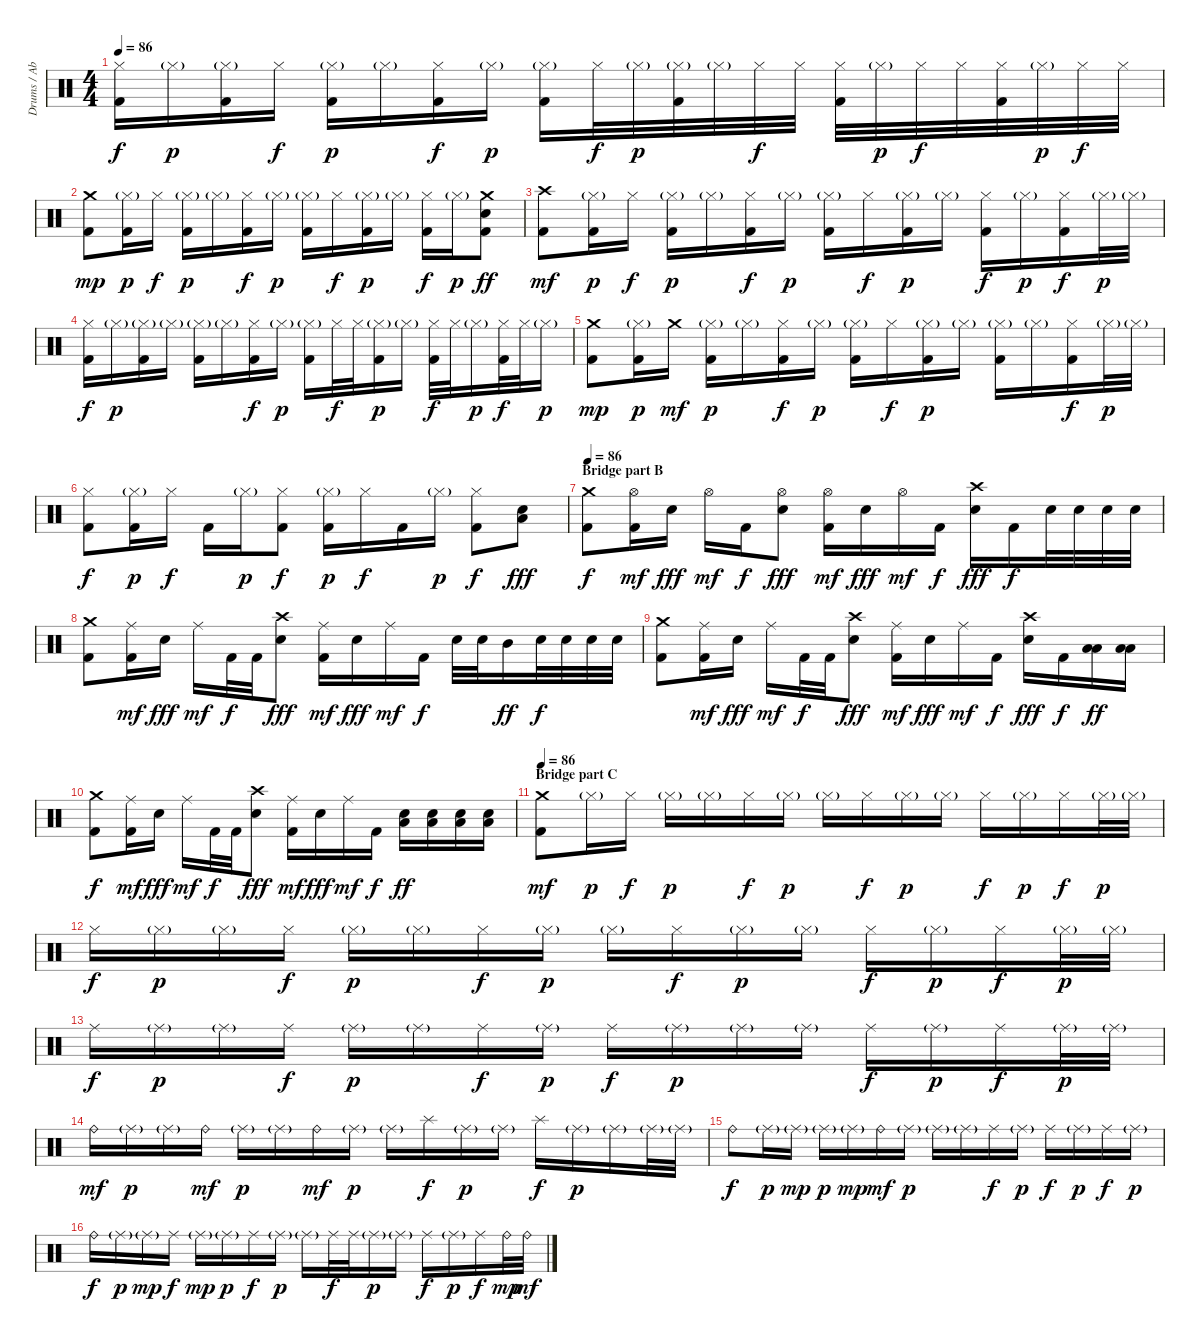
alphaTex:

\track ("Drums / Abe Cunningham" "Drums / Ab") {instrument percussion}
\staff {score}
\articulation defaults
\ts (4 4)
\tempo 86
\clef neutral
\ks c
("Hi-Hat (closed)" "Kick (hit) 2").16{dy f} "Hi-Hat (closed)"{g}.16{dy p} ("Hi-Hat (closed)"{g} "Kick (hit) 2").16 "Hi-Hat (closed)".16{dy f} ("Hi-Hat (closed)"{g} "Kick (hit) 2").16{dy p} "Hi-Hat (closed)"{g}.16 ("Hi-Hat (closed)" "Kick (hit) 2").16{dy f} "Hi-Hat (closed)"{g}.16{dy p} ("Hi-Hat (closed)"{g} "Kick (hit) 2").16 "Hi-Hat (closed)".32{dy f} "Hi-Hat (closed)"{g}.32{dy p} ("Hi-Hat (closed)"{g} "Kick (hit) 2").32 "Hi-Hat (closed)"{g}.32 "Hi-Hat (closed)".32{dy f} "Hi-Hat (closed)".32 ("Hi-Hat (closed)" "Kick (hit) 2").32 "Hi-Hat (closed)"{g}.32{dy p} "Hi-Hat (closed)".32{dy f} "Hi-Hat (closed)".32 ("Hi-Hat (closed)" "Kick (hit) 2").32 "Hi-Hat (closed)"{g}.32{dy p} "Hi-Hat (closed)".32{dy f} "Hi-Hat (closed)".32 |
("Crash medium (hit)" "Kick (hit) 2").8{dy mp} ("Hi-Hat (closed)"{g} "Kick (hit) 2").16{dy p} "Hi-Hat (closed)".16{dy f} ("Hi-Hat (closed)"{g} "Kick (hit) 2").16{dy p} "Hi-Hat (closed)"{g}.16 ("Hi-Hat (closed)" "Kick (hit) 2").16{dy f} "Hi-Hat (closed)"{g}.16{dy p} ("Hi-Hat (closed)"{g} "Kick (hit) 2").16 "Hi-Hat (closed)".16{dy f} ("Hi-Hat (closed)"{g} "Kick (hit) 2").16{dy p} "Hi-Hat (closed)"{g}.16 ("Hi-Hat (closed)" "Kick (hit) 2").16{dy f} "Hi-Hat (closed)"{g}.16{dy p} ("Crash medium (hit)" "Electric Snare (hit)" "Kick (hit) 2").8{dy ff} |
("Crash high (hit)" "Kick (hit) 2").8{dy mf} ("Hi-Hat (closed)"{g} "Kick (hit) 2").16{dy p} "Hi-Hat (closed)".16{dy f} ("Hi-Hat (closed)"{g} "Kick (hit) 2").16{dy p} "Hi-Hat (closed)"{g}.16 ("Hi-Hat (closed)" "Kick (hit) 2").16{dy f} "Hi-Hat (closed)"{g}.16{dy p} ("Hi-Hat (closed)"{g} "Kick (hit) 2").16 "Hi-Hat (closed)".16{dy f} ("Hi-Hat (closed)"{g} "Kick (hit) 2").16{dy p} "Hi-Hat (closed)"{g}.16 ("Hi-Hat (closed)" "Kick (hit) 2").16{dy f} "Hi-Hat (closed)"{g}.16{dy p} ("Hi-Hat (closed)" "Kick (hit) 2").16{dy f} "Hi-Hat (closed)"{g}.32{dy p} "Hi-Hat (closed)"{g}.32 |
("Hi-Hat (closed)" "Kick (hit) 2").16{dy f} "Hi-Hat (closed)"{g}.16{dy p} ("Hi-Hat (closed)"{g} "Kick (hit) 2").16 "Hi-Hat (closed)"{g}.16 ("Hi-Hat (closed)"{g} "Kick (hit) 2").16 "Hi-Hat (closed)"{g}.16 ("Hi-Hat (closed)" "Kick (hit) 2").16{dy f} "Hi-Hat (closed)"{g}.16{dy p} ("Hi-Hat (closed)"{g} "Kick (hit) 2").16 "Hi-Hat (closed)".32{dy f} "Hi-Hat (closed)".32 ("Hi-Hat (closed)"{g} "Kick (hit) 2").16{dy p} "Hi-Hat (closed)"{g}.16 ("Hi-Hat (closed)" "Kick (hit) 2").32{dy f} "Hi-Hat (closed)".32 "Hi-Hat (closed)"{g}.16{dy p} ("Hi-Hat (closed)" "Kick (hit) 2").32{dy f} "Hi-Hat (closed)".32 "Hi-Hat (closed)"{g}.16{dy p} |
("Crash medium (hit)" "Kick (hit) 2").8{dy mp} ("Hi-Hat (closed)"{g} "Kick (hit) 2").16{dy p} "Crash medium (hit)".16{dy mf} ("Hi-Hat (closed)"{g} "Kick (hit) 2").16{dy p} "Hi-Hat (closed)"{g}.16 ("Hi-Hat (closed)" "Kick (hit) 2").16{dy f} "Hi-Hat (closed)"{g}.16{dy p} ("Hi-Hat (closed)"{g} "Kick (hit) 2").16 "Hi-Hat (closed)".16{dy f} ("Hi-Hat (closed)"{g} "Kick (hit) 2").16{dy p} "Hi-Hat (closed)"{g}.16 ("Hi-Hat (closed)"{g} "Kick (hit) 2").16 "Hi-Hat (closed)"{g}.16 ("Hi-Hat (closed)" "Kick (hit) 2").16{dy f} "Hi-Hat (closed)"{g}.32{dy p} "Hi-Hat (closed)"{g}.32 |
("Hi-Hat (closed)" "Kick (hit) 2").8{dy f} ("Hi-Hat (closed)"{g} "Kick (hit) 2").16{dy p} "Hi-Hat (closed)".16{dy f} "Kick (hit) 2".16 "Hi-Hat (closed)"{g}.16{dy p} ("Hi-Hat (closed)" "Kick (hit) 2").8{dy f} ("Hi-Hat (closed)"{g} "Kick (hit) 2").16{dy p} "Hi-Hat (closed)".16{dy f} "Kick (hit) 2".16 "Hi-Hat (closed)"{g}.16{dy p} ("Hi-Hat (closed)" "Kick (hit) 2").8{dy f} ("Electric Snare (hit)" "Low Floor Tom (hit)").8{bd 30 dy fff} |
\section ("" "Bridge part B")
\tempo 86
("Crash medium (hit)" "Kick (hit) 2").8{dy f} ("Hi-Hat (open)" "Kick (hit) 2").16{dy mf} "Electric Snare (hit)".16{dy fff} "Hi-Hat (open)".16{dy mf} "Kick (hit) 2".16{dy f} ("Hi-Hat (open)" "Electric Snare (hit)").8{dy fff} ("Hi-Hat (open)" "Kick (hit) 2").16{dy mf} "Electric Snare (hit)".16{dy fff} "Hi-Hat (open)".16{dy mf} "Kick (hit) 2".16{dy f} ("Crash high (hit)" "Electric Snare (hit)").16{dy fff} "Kick (hit) 2".16{dy f} "Electric Snare (hit)".32 "Electric Snare (hit)".32 "Electric Snare (hit)".32 "Electric Snare (hit)".32 |
("Crash medium (hit)" "Kick (hit) 2").8 ("Ride (middle)" "Kick (hit) 2").16{dy mf} "Electric Snare (hit)".16{dy fff} "Ride (middle)".16{dy mf} "Kick (hit) 2".32{dy f} "Kick (hit) 2".32 ("Crash high (hit)" "Electric Snare (hit)").8{dy fff} ("Ride (middle)" "Kick (hit) 2").16{dy mf} "Electric Snare (hit)".16{dy fff} "Ride (middle)".16{dy mf} "Kick (hit) 2".16{dy f} "Electric Snare (hit)".32 "Electric Snare (hit)".32 "Mid Tom (hit)".16{dy ff} "Electric Snare (hit)".32{dy f} "Electric Snare (hit)".32 "Electric Snare (hit)".32 "Electric Snare (hit)".32 |
("Crash medium (hit)" "Kick (hit) 2").8 ("Ride (middle)" "Kick (hit) 2").16{dy mf} "Electric Snare (hit)".16{dy fff} "Ride (middle)".16{dy mf} "Kick (hit) 2".32{dy f} "Kick (hit) 2".32 ("Crash high (hit)" "Electric Snare (hit)").8{dy fff} ("Ride (middle)" "Kick (hit) 2").16{dy mf} "Electric Snare (hit)".16{dy fff} "Ride (middle)".16{dy mf} "Kick (hit) 2".16{dy f} ("Crash high (hit)" "Electric Snare (hit)").16{dy fff} "Kick (hit) 2".16{dy f} ("Low Tom (hit)" "Low Floor Tom (hit)").16{bd 30 dy ff} ("Low Tom (hit)" "Low Floor Tom (hit)").16{bd 30} |
("Crash medium (hit)" "Kick (hit) 2").8{dy f} ("Ride (middle)" "Kick (hit) 2").16{dy mf} "Electric Snare (hit)".16{dy fff} "Ride (middle)".16{dy mf} "Kick (hit) 2".32{dy f} "Kick (hit) 2".32 ("Crash high (hit)" "Electric Snare (hit)").8{dy fff} ("Ride (middle)" "Kick (hit) 2").16{dy mf} "Electric Snare (hit)".16{dy fff} "Ride (middle)".16{dy mf} "Kick (hit) 2".16{dy f} ("Electric Snare (hit)" "Low Floor Tom (hit)").16{bd 30 dy ff} ("Electric Snare (hit)" "Low Floor Tom (hit)").16{bd 30} ("Electric Snare (hit)" "Low Floor Tom (hit)").16{bd 30} ("Electric Snare (hit)" "Low Floor Tom (hit)").16{bd 30} |
\section ("" "Bridge part C")
\tempo 86
("Crash medium (hit)" "Kick (hit) 2").8{dy mf volume 13} "Hi-Hat (closed)"{g}.16{dy p} "Hi-Hat (closed)".16{dy f} "Hi-Hat (closed)"{g}.16{dy p} "Hi-Hat (closed)"{g}.16 "Hi-Hat (closed)".16{dy f} "Hi-Hat (closed)"{g}.16{dy p} "Hi-Hat (closed)"{g}.16 "Hi-Hat (closed)".16{dy f} "Hi-Hat (closed)"{g}.16{dy p} "Hi-Hat (closed)"{g}.16 "Hi-Hat (closed)".16{dy f} "Hi-Hat (closed)"{g}.16{dy p} "Hi-Hat (closed)".16{dy f} "Hi-Hat (closed)"{g}.32{dy p} "Hi-Hat (closed)"{g}.32 |
"Hi-Hat (closed)".16{dy f} "Hi-Hat (closed)"{g}.16{dy p} "Hi-Hat (closed)"{g}.16 "Hi-Hat (closed)".16{dy f} "Hi-Hat (closed)"{g}.16{dy p} "Hi-Hat (closed)"{g}.16 "Hi-Hat (closed)".16{dy f} "Hi-Hat (closed)"{g}.16{dy p} "Hi-Hat (closed)"{g}.16 "Hi-Hat (closed)".16{dy f} "Hi-Hat (closed)"{g}.16{dy p} "Hi-Hat (closed)"{g}.16 "Hi-Hat (closed)".16{dy f} "Hi-Hat (closed)"{g}.16{dy p} "Hi-Hat (closed)".16{dy f} "Hi-Hat (closed)"{g}.32{dy p} "Hi-Hat (closed)"{g}.32 |
"Ride (middle)".16{dy f} "Ride (middle)"{g}.16{dy p} "Ride (middle)"{g}.16 "Ride (middle)".16{dy f} "Ride (middle)"{g}.16{dy p} "Ride (middle)"{g}.16 "Ride (middle)".16{dy f} "Ride (middle)"{g}.16{dy p} "Ride (middle)".16{dy f} "Ride (middle)"{g}.16{dy p} "Ride (middle)"{g}.16 "Ride (middle)"{g}.16 "Ride (middle)".16{dy f} "Ride (middle)"{g}.16{dy p} "Ride (middle)".16{dy f} "Ride (middle)"{g}.32{dy p} "Ride (middle)"{g}.32 |
"Ride (bell)".16{dy mf} "Ride (middle)"{g}.16{dy p} "Ride (middle)"{g}.16 "Ride (bell)".16{dy mf} "Ride (middle)"{g}.16{dy p} "Ride (middle)"{g}.16 "Ride (bell)".16{dy mf} "Ride (middle)"{g}.16{dy p} "Ride (middle)"{g}.16 "Splash (hit)".16{dy f} "Ride (middle)"{g}.16{dy p} "Ride (middle)"{g}.16 "Splash (hit)".16{dy f} "Ride (middle)"{g}.16{dy p} "Ride (middle)"{g}.16 "Ride (middle)"{g}.32 "Ride (middle)"{g}.32 |
"Ride (bell)".8{dy f} "Ride (middle)"{g}.16{dy p} "Ride (middle)"{g}.16{dy mp} "Ride (middle)"{g}.16{dy p} "Ride (middle)"{g}.16{dy mp} "Ride (bell)".16{dy mf} "Ride (middle)"{g}.16{dy p} "Ride (middle)"{g}.16 "Ride (middle)"{g}.16 "Ride (middle)".16{dy f} "Ride (middle)"{g}.16{dy p} "Ride (middle)".16{dy f} "Ride (middle)"{g}.16{dy p} "Ride (middle)".16{dy f} "Ride (middle)"{g}.16{dy p} |
"Ride (bell)".16{dy f} "Ride (middle)"{g}.16{dy p} "Ride (middle)"{g}.16{dy mp} "Ride (middle)".16{dy f} "Ride (middle)"{g}.16{dy mp} "Ride (middle)"{g}.16{dy p} "Ride (middle)".16{dy f} "Ride (middle)"{g}.16{dy p} "Ride (middle)"{g}.16 "Ride (middle)".32{dy f} "Ride (middle)".32 "Ride (middle)"{g}.16{dy p} "Ride (middle)"{g}.16 "Ride (middle)".16{dy f} "Ride (middle)"{g}.16{dy p} "Ride (middle)".16{dy f} "Ride (bell)".32{dy mp} "Ride (bell)".32{dy mf}
